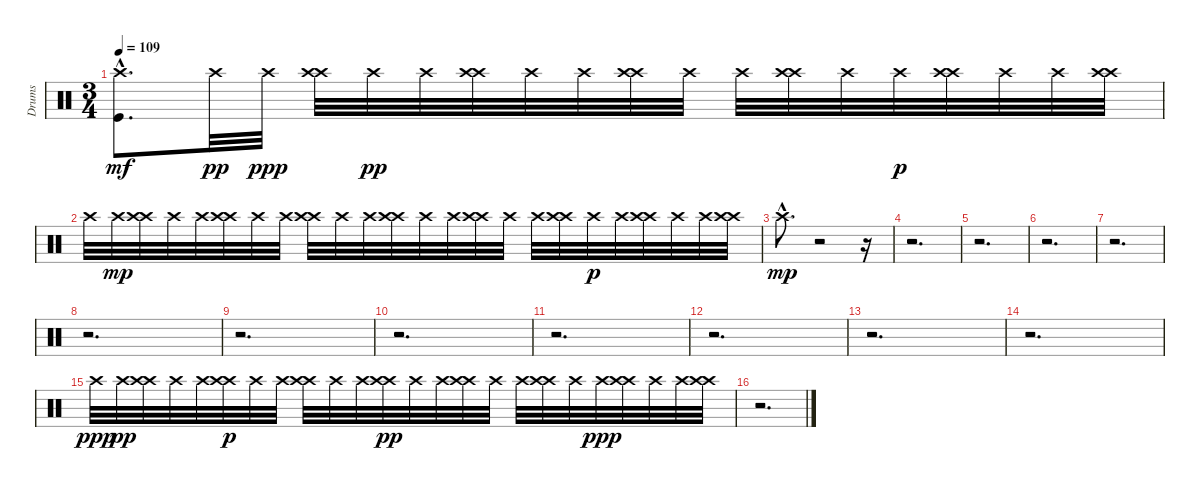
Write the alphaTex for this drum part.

\track ("Drums" "Drums") {instrument percussion}
\staff {score}
\articulation defaults
\ts (3 4)
\tempo 109
\clef neutral
\ks c
("Kick (hit)"{hac} "Crash high (hit)").8{d dy mf} "Crash high (hit)".32{dy pp} "Crash high (hit)".32{dy ppp} ("Crash high (hit)" "Crash high (hit)").32 "Crash high (hit)".32{dy pp} "Crash high (hit)".32 ("Crash high (hit)" "Crash high (hit)").32 "Crash high (hit)".32 "Crash high (hit)".32 ("Crash high (hit)" "Crash high (hit)").32 "Crash high (hit)".32 "Crash high (hit)".32 ("Crash high (hit)" "Crash high (hit)").32 "Crash high (hit)".32 "Crash high (hit)".32{dy p} ("Crash high (hit)" "Crash high (hit)").32 "Crash high (hit)".32 "Crash high (hit)".32 ("Crash high (hit)" "Crash high (hit)").32 |
"Crash high (hit)".32 "Crash high (hit)".32{dy mp} ("Crash high (hit)" "Crash high (hit)").32 "Crash high (hit)".32 "Crash high (hit)".32 ("Crash high (hit)" "Crash high (hit)").32 "Crash high (hit)".32 "Crash high (hit)".32 ("Crash high (hit)" "Crash high (hit)").32 "Crash high (hit)".32 "Crash high (hit)".32 ("Crash high (hit)" "Crash high (hit)").32 "Crash high (hit)".32 "Crash high (hit)".32 ("Crash high (hit)" "Crash high (hit)").32 "Crash high (hit)".32 "Crash high (hit)".32 ("Crash high (hit)" "Crash high (hit)").32 "Crash high (hit)".32{dy p} "Crash high (hit)".32 ("Crash high (hit)" "Crash high (hit)").32 "Crash high (hit)".32 "Crash high (hit)".32 ("Crash high (hit)" "Crash high (hit)").32 |
"Crash high (hit)"{hac}.8{d dy mp} r.2 r.16 |
r.2{d} |
r.2{d} |
r.2{d} |
r.2{d} |
r.2{d} |
r.2{d} |
r.2{d} |
r.2{d} |
r.2{d} |
r.2{d} |
r.2{d} |
"Crash high (hit)".32{dy ppp} "Crash high (hit)".32{dy pp} ("Crash high (hit)" "Crash high (hit)").32 "Crash high (hit)".32 "Crash high (hit)".32 ("Crash high (hit)" "Crash high (hit)").32{dy p} "Crash high (hit)".32 "Crash high (hit)".32 ("Crash high (hit)" "Crash high (hit)").32 "Crash high (hit)".32 "Crash high (hit)".32 ("Crash high (hit)" "Crash high (hit)").32{dy pp} "Crash high (hit)".32 "Crash high (hit)".32 ("Crash high (hit)" "Crash high (hit)").32 "Crash high (hit)".32 "Crash high (hit)".32 ("Crash high (hit)" "Crash high (hit)").32 "Crash high (hit)".32 "Crash high (hit)".32{dy ppp} ("Crash high (hit)" "Crash high (hit)").32 "Crash high (hit)".32 "Crash high (hit)".32 ("Crash high (hit)" "Crash high (hit)").32 |
r.2{d}
